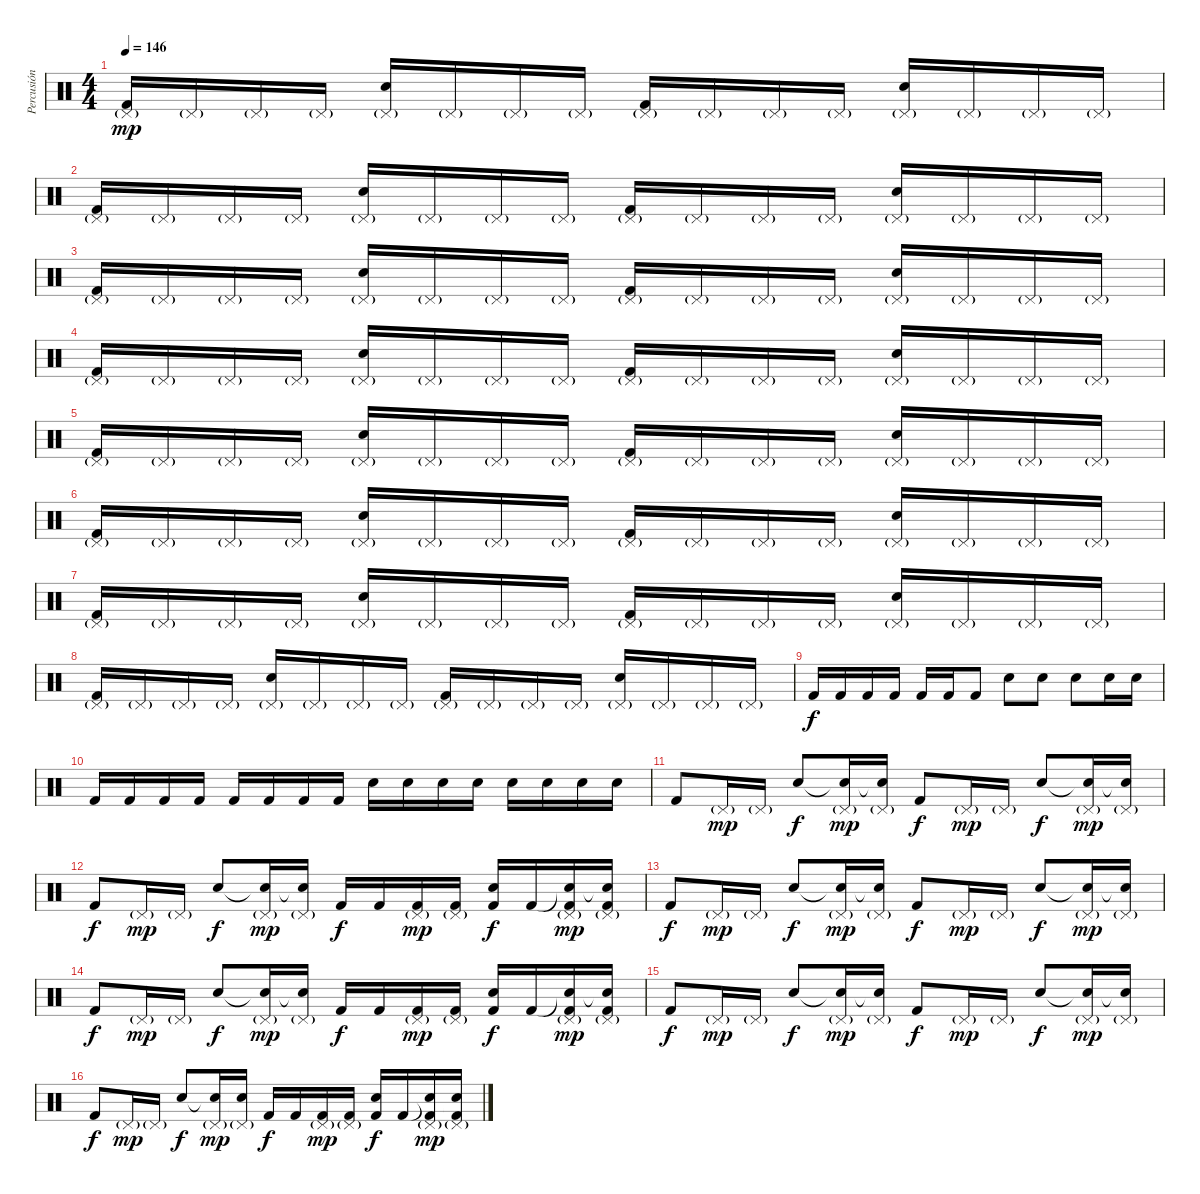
\track ("Percusión" "Percusión") {instrument percussion}
\staff {score}
\articulation defaults
\ts (4 4)
\tempo 146
\clef neutral
\ks c
("Pedal Hi-Hat (hit)"{g} "Kick (hit) 2").16{dy mp} "Pedal Hi-Hat (hit)"{g}.16 "Pedal Hi-Hat (hit)"{g}.16 "Pedal Hi-Hat (hit)"{g}.16 ("Pedal Hi-Hat (hit)"{g} "Snare (hit) 2").16 "Pedal Hi-Hat (hit)"{g}.16 "Pedal Hi-Hat (hit)"{g}.16 "Pedal Hi-Hat (hit)"{g}.16 ("Pedal Hi-Hat (hit)"{g} "Kick (hit) 2").16 "Pedal Hi-Hat (hit)"{g}.16 "Pedal Hi-Hat (hit)"{g}.16 "Pedal Hi-Hat (hit)"{g}.16 ("Pedal Hi-Hat (hit)"{g} "Snare (hit) 2").16 "Pedal Hi-Hat (hit)"{g}.16 "Pedal Hi-Hat (hit)"{g}.16 "Pedal Hi-Hat (hit)"{g}.16 |
("Pedal Hi-Hat (hit)"{g} "Kick (hit) 2").16 "Pedal Hi-Hat (hit)"{g}.16 "Pedal Hi-Hat (hit)"{g}.16 "Pedal Hi-Hat (hit)"{g}.16 ("Pedal Hi-Hat (hit)"{g} "Snare (hit) 2").16 "Pedal Hi-Hat (hit)"{g}.16 "Pedal Hi-Hat (hit)"{g}.16 "Pedal Hi-Hat (hit)"{g}.16 ("Pedal Hi-Hat (hit)"{g} "Kick (hit) 2").16 "Pedal Hi-Hat (hit)"{g}.16 "Pedal Hi-Hat (hit)"{g}.16 "Pedal Hi-Hat (hit)"{g}.16 ("Pedal Hi-Hat (hit)"{g} "Snare (hit) 2").16 "Pedal Hi-Hat (hit)"{g}.16 "Pedal Hi-Hat (hit)"{g}.16 "Pedal Hi-Hat (hit)"{g}.16 |
("Pedal Hi-Hat (hit)"{g} "Kick (hit) 2").16 "Pedal Hi-Hat (hit)"{g}.16 "Pedal Hi-Hat (hit)"{g}.16 "Pedal Hi-Hat (hit)"{g}.16 ("Pedal Hi-Hat (hit)"{g} "Snare (hit) 2").16 "Pedal Hi-Hat (hit)"{g}.16 "Pedal Hi-Hat (hit)"{g}.16 "Pedal Hi-Hat (hit)"{g}.16 ("Pedal Hi-Hat (hit)"{g} "Kick (hit) 2").16 "Pedal Hi-Hat (hit)"{g}.16 "Pedal Hi-Hat (hit)"{g}.16 "Pedal Hi-Hat (hit)"{g}.16 ("Pedal Hi-Hat (hit)"{g} "Snare (hit) 2").16 "Pedal Hi-Hat (hit)"{g}.16 "Pedal Hi-Hat (hit)"{g}.16 "Pedal Hi-Hat (hit)"{g}.16 |
("Pedal Hi-Hat (hit)"{g} "Kick (hit) 2").16 "Pedal Hi-Hat (hit)"{g}.16 "Pedal Hi-Hat (hit)"{g}.16 "Pedal Hi-Hat (hit)"{g}.16 ("Pedal Hi-Hat (hit)"{g} "Snare (hit) 2").16 "Pedal Hi-Hat (hit)"{g}.16 "Pedal Hi-Hat (hit)"{g}.16 "Pedal Hi-Hat (hit)"{g}.16 ("Pedal Hi-Hat (hit)"{g} "Kick (hit) 2").16 "Pedal Hi-Hat (hit)"{g}.16 "Pedal Hi-Hat (hit)"{g}.16 "Pedal Hi-Hat (hit)"{g}.16 ("Pedal Hi-Hat (hit)"{g} "Snare (hit) 2").16 "Pedal Hi-Hat (hit)"{g}.16 "Pedal Hi-Hat (hit)"{g}.16 "Pedal Hi-Hat (hit)"{g}.16 |
("Pedal Hi-Hat (hit)"{g} "Kick (hit) 2").16 "Pedal Hi-Hat (hit)"{g}.16 "Pedal Hi-Hat (hit)"{g}.16 "Pedal Hi-Hat (hit)"{g}.16 ("Pedal Hi-Hat (hit)"{g} "Snare (hit) 2").16 "Pedal Hi-Hat (hit)"{g}.16 "Pedal Hi-Hat (hit)"{g}.16 "Pedal Hi-Hat (hit)"{g}.16 ("Pedal Hi-Hat (hit)"{g} "Kick (hit) 2").16 "Pedal Hi-Hat (hit)"{g}.16 "Pedal Hi-Hat (hit)"{g}.16 "Pedal Hi-Hat (hit)"{g}.16 ("Pedal Hi-Hat (hit)"{g} "Snare (hit) 2").16 "Pedal Hi-Hat (hit)"{g}.16 "Pedal Hi-Hat (hit)"{g}.16 "Pedal Hi-Hat (hit)"{g}.16 |
("Pedal Hi-Hat (hit)"{g} "Kick (hit) 2").16 "Pedal Hi-Hat (hit)"{g}.16 "Pedal Hi-Hat (hit)"{g}.16 "Pedal Hi-Hat (hit)"{g}.16 ("Pedal Hi-Hat (hit)"{g} "Snare (hit) 2").16 "Pedal Hi-Hat (hit)"{g}.16 "Pedal Hi-Hat (hit)"{g}.16 "Pedal Hi-Hat (hit)"{g}.16 ("Pedal Hi-Hat (hit)"{g} "Kick (hit) 2").16 "Pedal Hi-Hat (hit)"{g}.16 "Pedal Hi-Hat (hit)"{g}.16 "Pedal Hi-Hat (hit)"{g}.16 ("Pedal Hi-Hat (hit)"{g} "Snare (hit) 2").16 "Pedal Hi-Hat (hit)"{g}.16 "Pedal Hi-Hat (hit)"{g}.16 "Pedal Hi-Hat (hit)"{g}.16 |
("Pedal Hi-Hat (hit)"{g} "Kick (hit) 2").16 "Pedal Hi-Hat (hit)"{g}.16 "Pedal Hi-Hat (hit)"{g}.16 "Pedal Hi-Hat (hit)"{g}.16 ("Pedal Hi-Hat (hit)"{g} "Snare (hit) 2").16 "Pedal Hi-Hat (hit)"{g}.16 "Pedal Hi-Hat (hit)"{g}.16 "Pedal Hi-Hat (hit)"{g}.16 ("Pedal Hi-Hat (hit)"{g} "Kick (hit) 2").16 "Pedal Hi-Hat (hit)"{g}.16 "Pedal Hi-Hat (hit)"{g}.16 "Pedal Hi-Hat (hit)"{g}.16 ("Pedal Hi-Hat (hit)"{g} "Snare (hit) 2").16 "Pedal Hi-Hat (hit)"{g}.16 "Pedal Hi-Hat (hit)"{g}.16 "Pedal Hi-Hat (hit)"{g}.16 |
("Pedal Hi-Hat (hit)"{g} "Kick (hit) 2").16 "Pedal Hi-Hat (hit)"{g}.16 "Pedal Hi-Hat (hit)"{g}.16 "Pedal Hi-Hat (hit)"{g}.16 ("Pedal Hi-Hat (hit)"{g} "Snare (hit) 2").16 "Pedal Hi-Hat (hit)"{g}.16 "Pedal Hi-Hat (hit)"{g}.16 "Pedal Hi-Hat (hit)"{g}.16 ("Pedal Hi-Hat (hit)"{g} "Kick (hit) 2").16 "Pedal Hi-Hat (hit)"{g}.16 "Pedal Hi-Hat (hit)"{g}.16 "Pedal Hi-Hat (hit)"{g}.16 ("Pedal Hi-Hat (hit)"{g} "Snare (hit) 2").16 "Pedal Hi-Hat (hit)"{g}.16 "Pedal Hi-Hat (hit)"{g}.16 "Pedal Hi-Hat (hit)"{g}.16 |
"Kick (hit) 2".16{dy f} "Kick (hit) 2".16 "Kick (hit) 2".16 "Kick (hit) 2".16 "Kick (hit) 2".16 "Kick (hit) 2".16 "Kick (hit) 2".8 "Snare (hit) 2".8 "Snare (hit) 2".8 "Snare (hit) 2".8 "Snare (hit) 2".16 "Snare (hit) 2".16 |
"Kick (hit) 2".16 "Kick (hit) 2".16 "Kick (hit) 2".16 "Kick (hit) 2".16 "Kick (hit) 2".16 "Kick (hit) 2".16 "Kick (hit) 2".16 "Kick (hit) 2".16 "Snare (hit) 2".16 "Snare (hit) 2".16 "Snare (hit) 2".16 "Snare (hit) 2".16 "Snare (hit) 2".16 "Snare (hit) 2".16 "Snare (hit) 2".16 "Snare (hit) 2".16 |
"Kick (hit) 2".8 "Pedal Hi-Hat (hit)"{g}.16{dy mp} "Pedal Hi-Hat (hit)"{g}.16 "Snare (hit) 2".8{dy f} ("Snare (hit)"{t} "Pedal Hi-Hat (hit)"{g}).16{dy mp} ("Snare (hit)"{t} "Pedal Hi-Hat (hit)"{g}).16 "Kick (hit) 2".8{dy f} "Pedal Hi-Hat (hit)"{g}.16{dy mp} "Pedal Hi-Hat (hit)"{g}.16 "Snare (hit) 2".8{dy f} ("Snare (hit)"{t} "Pedal Hi-Hat (hit)"{g}).16{dy mp} ("Snare (hit)"{t} "Pedal Hi-Hat (hit)"{g}).16 |
"Kick (hit) 2".8{dy f} "Pedal Hi-Hat (hit)"{g}.16{dy mp} "Pedal Hi-Hat (hit)"{g}.16 "Snare (hit) 2".8{dy f} ("Snare (hit)"{t} "Pedal Hi-Hat (hit)"{g}).16{dy mp} ("Snare (hit)"{t} "Pedal Hi-Hat (hit)"{g}).16 "Kick (hit) 2".16{dy f} "Kick (hit) 2".16 ("Pedal Hi-Hat (hit)"{g} "Kick (hit) 2").16{dy mp} ("Pedal Hi-Hat (hit)"{g} "Kick (hit) 2").16 ("Snare (hit) 2" "Kick (hit) 2").16{dy f} "Kick (hit) 2".16 ("Snare (hit)"{t} "Pedal Hi-Hat (hit)"{g} "Kick (hit) 2").16{dy mp} ("Snare (hit)"{t} "Pedal Hi-Hat (hit)"{g} "Kick (hit) 2").16 |
"Kick (hit) 2".8{dy f} "Pedal Hi-Hat (hit)"{g}.16{dy mp} "Pedal Hi-Hat (hit)"{g}.16 "Snare (hit) 2".8{dy f} ("Snare (hit)"{t} "Pedal Hi-Hat (hit)"{g}).16{dy mp} ("Snare (hit)"{t} "Pedal Hi-Hat (hit)"{g}).16 "Kick (hit) 2".8{dy f} "Pedal Hi-Hat (hit)"{g}.16{dy mp} "Pedal Hi-Hat (hit)"{g}.16 "Snare (hit) 2".8{dy f} ("Snare (hit)"{t} "Pedal Hi-Hat (hit)"{g}).16{dy mp} ("Snare (hit)"{t} "Pedal Hi-Hat (hit)"{g}).16 |
"Kick (hit) 2".8{dy f} "Pedal Hi-Hat (hit)"{g}.16{dy mp} "Pedal Hi-Hat (hit)"{g}.16 "Snare (hit) 2".8{dy f} ("Snare (hit)"{t} "Pedal Hi-Hat (hit)"{g}).16{dy mp} ("Snare (hit)"{t} "Pedal Hi-Hat (hit)"{g}).16 "Kick (hit) 2".16{dy f} "Kick (hit) 2".16 ("Pedal Hi-Hat (hit)"{g} "Kick (hit) 2").16{dy mp} ("Pedal Hi-Hat (hit)"{g} "Kick (hit) 2").16 ("Snare (hit) 2" "Kick (hit) 2").16{dy f} "Kick (hit) 2".16 ("Snare (hit)"{t} "Pedal Hi-Hat (hit)"{g} "Kick (hit) 2").16{dy mp} ("Snare (hit)"{t} "Pedal Hi-Hat (hit)"{g} "Kick (hit) 2").16 |
"Kick (hit) 2".8{dy f} "Pedal Hi-Hat (hit)"{g}.16{dy mp} "Pedal Hi-Hat (hit)"{g}.16 "Snare (hit) 2".8{dy f} ("Snare (hit)"{t} "Pedal Hi-Hat (hit)"{g}).16{dy mp} ("Snare (hit)"{t} "Pedal Hi-Hat (hit)"{g}).16 "Kick (hit) 2".8{dy f} "Pedal Hi-Hat (hit)"{g}.16{dy mp} "Pedal Hi-Hat (hit)"{g}.16 "Snare (hit) 2".8{dy f} ("Snare (hit)"{t} "Pedal Hi-Hat (hit)"{g}).16{dy mp} ("Snare (hit)"{t} "Pedal Hi-Hat (hit)"{g}).16 |
"Kick (hit) 2".8{dy f} "Pedal Hi-Hat (hit)"{g}.16{dy mp} "Pedal Hi-Hat (hit)"{g}.16 "Snare (hit) 2".8{dy f} ("Snare (hit)"{t} "Pedal Hi-Hat (hit)"{g}).16{dy mp} ("Snare (hit)"{t} "Pedal Hi-Hat (hit)"{g}).16 "Kick (hit) 2".16{dy f} "Kick (hit) 2".16 ("Pedal Hi-Hat (hit)"{g} "Kick (hit) 2").16{dy mp} ("Pedal Hi-Hat (hit)"{g} "Kick (hit) 2").16 ("Snare (hit) 2" "Kick (hit) 2").16{dy f} "Kick (hit) 2".16 ("Snare (hit)"{t} "Pedal Hi-Hat (hit)"{g} "Kick (hit) 2").16{dy mp} ("Snare (hit)"{t} "Pedal Hi-Hat (hit)"{g} "Kick (hit) 2").16
